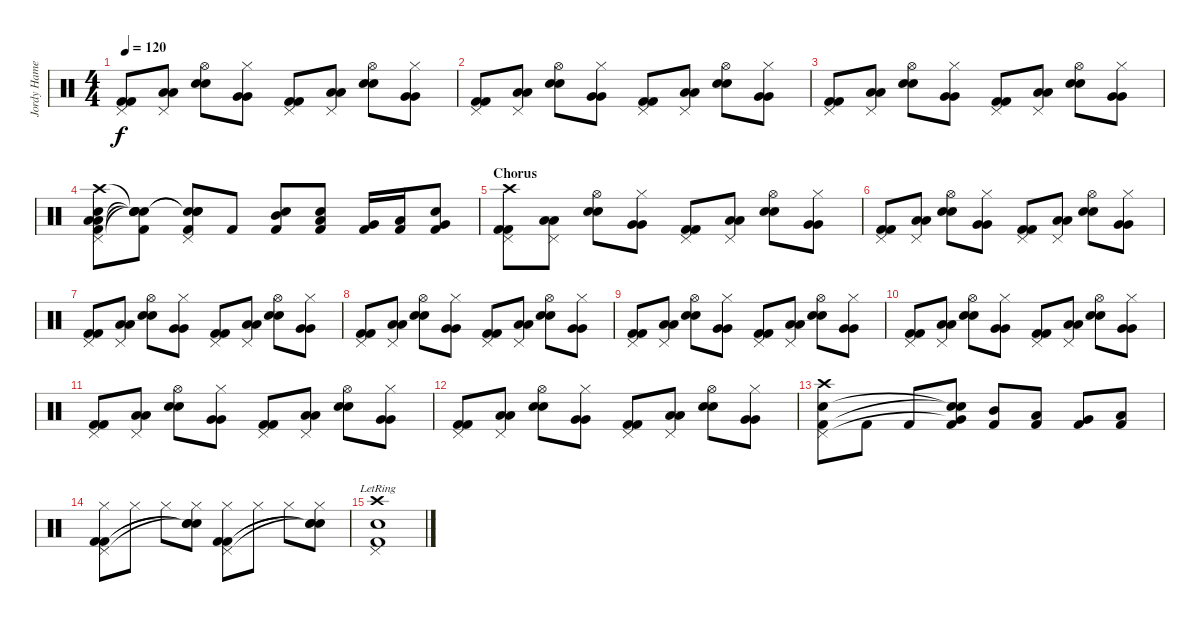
\track ("Jordy Hamer" "Jordy Hame") {instrument percussion}
\staff {score}
\articulation defaults
\ts (4 4)
\tempo 120
\clef neutral
\ks c
("Pedal Hi-Hat (hit)" "Kick (hit) 2" "Kick (hit) 2").8{dy f} ("Pedal Hi-Hat (hit)" "Low Floor Tom (hit)" "Low Floor Tom (hit)").8 ("Hi-Hat (open)" "Electric Snare (hit)" "Electric Snare (hit)").8 ("Hi-Hat (closed)" "Very Low Tom (hit)" "Very Low Tom (hit)").8 ("Pedal Hi-Hat (hit)" "Kick (hit) 2" "Kick (hit) 2").8 ("Pedal Hi-Hat (hit)" "Low Floor Tom (hit)" "Low Floor Tom (hit)").8 ("Hi-Hat (open)" "Electric Snare (hit)" "Electric Snare (hit)").8 ("Hi-Hat (closed)" "Very Low Tom (hit)" "Very Low Tom (hit)").8 |
("Pedal Hi-Hat (hit)" "Kick (hit) 2" "Kick (hit) 2").8 ("Pedal Hi-Hat (hit)" "Low Floor Tom (hit)" "Low Floor Tom (hit)").8 ("Hi-Hat (open)" "Electric Snare (hit)" "Electric Snare (hit)").8 ("Hi-Hat (closed)" "Very Low Tom (hit)" "Very Low Tom (hit)").8 ("Pedal Hi-Hat (hit)" "Kick (hit) 2" "Kick (hit) 2").8 ("Pedal Hi-Hat (hit)" "Low Floor Tom (hit)" "Low Floor Tom (hit)").8 ("Hi-Hat (open)" "Electric Snare (hit)" "Electric Snare (hit)").8 ("Hi-Hat (closed)" "Very Low Tom (hit)" "Very Low Tom (hit)").8 |
("Pedal Hi-Hat (hit)" "Kick (hit) 2" "Kick (hit) 2").8 ("Pedal Hi-Hat (hit)" "Low Floor Tom (hit)" "Low Floor Tom (hit)").8 ("Hi-Hat (open)" "Electric Snare (hit)" "Electric Snare (hit)").8 ("Hi-Hat (closed)" "Very Low Tom (hit)" "Very Low Tom (hit)").8 ("Pedal Hi-Hat (hit)" "Kick (hit) 2" "Kick (hit) 2").8 ("Pedal Hi-Hat (hit)" "Low Floor Tom (hit)" "Low Floor Tom (hit)").8 ("Hi-Hat (open)" "Electric Snare (hit)" "Electric Snare (hit)").8 ("Hi-Hat (closed)" "Very Low Tom (hit)" "Very Low Tom (hit)").8 |
("Low Floor Tom (hit)" "Pedal Hi-Hat (hit)" "Low Floor Tom (hit)" "Kick (hit) 2" "Crash high (hit)" "Electric Snare (hit)").8 ("Kick (hit) 2" "Snare (hit)"{t} "Snare (hit)"{t} "Snare (hit)"{t} "Snare (hit)"{t}).8 ("Pedal Hi-Hat (hit)" "Electric Snare (hit)" "Kick (hit) 2" "Snare (hit)"{t} "Snare (hit)"{t}).8 "Kick (hit) 2".8 ("Kick (hit) 2" "Mid Tom (hit)" "Electric Snare (hit)").8 ("Kick (hit) 2" "Low Tom (hit)" "Electric Snare (hit)").8 ("Kick (hit) 2" "Very Low Tom (hit)").16 ("Kick (hit) 2" "Low Floor Tom (hit)").16 ("Kick (hit) 2" "Very Low Tom (hit)" "Electric Snare (hit)").8 |
\section ("" "Chorus")
("Crash high (hit)" "Pedal Hi-Hat (hit)" "Kick (hit) 2" "Kick (hit) 2").8 ("Pedal Hi-Hat (hit)" "Low Floor Tom (hit)" "Low Floor Tom (hit)").8 ("Hi-Hat (open)" "Electric Snare (hit)" "Electric Snare (hit)").8 ("Hi-Hat (closed)" "Very Low Tom (hit)" "Very Low Tom (hit)").8 ("Pedal Hi-Hat (hit)" "Kick (hit) 2" "Kick (hit) 2").8 ("Pedal Hi-Hat (hit)" "Low Floor Tom (hit)" "Low Floor Tom (hit)").8 ("Hi-Hat (open)" "Electric Snare (hit)" "Electric Snare (hit)").8 ("Hi-Hat (closed)" "Very Low Tom (hit)" "Very Low Tom (hit)").8 |
("Pedal Hi-Hat (hit)" "Kick (hit) 2" "Kick (hit) 2").8 ("Pedal Hi-Hat (hit)" "Low Floor Tom (hit)" "Low Floor Tom (hit)").8 ("Hi-Hat (open)" "Electric Snare (hit)" "Electric Snare (hit)").8 ("Hi-Hat (closed)" "Very Low Tom (hit)" "Very Low Tom (hit)").8 ("Pedal Hi-Hat (hit)" "Kick (hit) 2" "Kick (hit) 2").8 ("Pedal Hi-Hat (hit)" "Low Floor Tom (hit)" "Low Floor Tom (hit)").8 ("Hi-Hat (open)" "Electric Snare (hit)" "Electric Snare (hit)").8 ("Hi-Hat (closed)" "Very Low Tom (hit)" "Very Low Tom (hit)").8 |
("Pedal Hi-Hat (hit)" "Kick (hit) 2" "Kick (hit) 2").8 ("Pedal Hi-Hat (hit)" "Low Floor Tom (hit)" "Low Floor Tom (hit)").8 ("Hi-Hat (open)" "Electric Snare (hit)" "Electric Snare (hit)").8 ("Hi-Hat (closed)" "Very Low Tom (hit)" "Very Low Tom (hit)").8 ("Pedal Hi-Hat (hit)" "Kick (hit) 2" "Kick (hit) 2").8 ("Pedal Hi-Hat (hit)" "Low Floor Tom (hit)" "Low Floor Tom (hit)").8 ("Hi-Hat (open)" "Electric Snare (hit)" "Electric Snare (hit)").8 ("Hi-Hat (closed)" "Very Low Tom (hit)" "Very Low Tom (hit)").8 |
("Pedal Hi-Hat (hit)" "Kick (hit) 2" "Kick (hit) 2").8 ("Pedal Hi-Hat (hit)" "Low Floor Tom (hit)" "Low Floor Tom (hit)").8 ("Hi-Hat (open)" "Electric Snare (hit)" "Electric Snare (hit)").8 ("Hi-Hat (closed)" "Very Low Tom (hit)" "Very Low Tom (hit)").8 ("Pedal Hi-Hat (hit)" "Kick (hit) 2" "Kick (hit) 2").8 ("Pedal Hi-Hat (hit)" "Low Floor Tom (hit)" "Low Floor Tom (hit)").8 ("Hi-Hat (open)" "Electric Snare (hit)" "Electric Snare (hit)").8 ("Hi-Hat (closed)" "Very Low Tom (hit)" "Very Low Tom (hit)").8 |
("Pedal Hi-Hat (hit)" "Kick (hit) 2" "Kick (hit) 2").8 ("Pedal Hi-Hat (hit)" "Low Floor Tom (hit)" "Low Floor Tom (hit)").8 ("Hi-Hat (open)" "Electric Snare (hit)" "Electric Snare (hit)").8 ("Hi-Hat (closed)" "Very Low Tom (hit)" "Very Low Tom (hit)").8 ("Pedal Hi-Hat (hit)" "Kick (hit) 2" "Kick (hit) 2").8 ("Pedal Hi-Hat (hit)" "Low Floor Tom (hit)" "Low Floor Tom (hit)").8 ("Hi-Hat (open)" "Electric Snare (hit)" "Electric Snare (hit)").8 ("Hi-Hat (closed)" "Very Low Tom (hit)" "Very Low Tom (hit)").8 |
("Pedal Hi-Hat (hit)" "Kick (hit) 2" "Kick (hit) 2").8 ("Pedal Hi-Hat (hit)" "Low Floor Tom (hit)" "Low Floor Tom (hit)").8 ("Hi-Hat (open)" "Electric Snare (hit)" "Electric Snare (hit)").8 ("Hi-Hat (closed)" "Very Low Tom (hit)" "Very Low Tom (hit)").8 ("Pedal Hi-Hat (hit)" "Kick (hit) 2" "Kick (hit) 2").8 ("Pedal Hi-Hat (hit)" "Low Floor Tom (hit)" "Low Floor Tom (hit)").8 ("Hi-Hat (open)" "Electric Snare (hit)" "Electric Snare (hit)").8 ("Hi-Hat (closed)" "Very Low Tom (hit)" "Very Low Tom (hit)").8 |
("Pedal Hi-Hat (hit)" "Kick (hit) 2" "Kick (hit) 2").8 ("Pedal Hi-Hat (hit)" "Low Floor Tom (hit)" "Low Floor Tom (hit)").8 ("Hi-Hat (open)" "Electric Snare (hit)" "Electric Snare (hit)").8 ("Hi-Hat (closed)" "Very Low Tom (hit)" "Very Low Tom (hit)").8 ("Pedal Hi-Hat (hit)" "Kick (hit) 2" "Kick (hit) 2").8 ("Pedal Hi-Hat (hit)" "Low Floor Tom (hit)" "Low Floor Tom (hit)").8 ("Hi-Hat (open)" "Electric Snare (hit)" "Electric Snare (hit)").8 ("Hi-Hat (closed)" "Very Low Tom (hit)" "Very Low Tom (hit)").8 |
("Pedal Hi-Hat (hit)" "Kick (hit) 2" "Kick (hit) 2").8 ("Pedal Hi-Hat (hit)" "Low Floor Tom (hit)" "Low Floor Tom (hit)").8 ("Hi-Hat (open)" "Electric Snare (hit)" "Electric Snare (hit)").8 ("Hi-Hat (closed)" "Very Low Tom (hit)" "Very Low Tom (hit)").8 ("Pedal Hi-Hat (hit)" "Kick (hit) 2" "Kick (hit) 2").8 ("Pedal Hi-Hat (hit)" "Low Floor Tom (hit)" "Low Floor Tom (hit)").8 ("Hi-Hat (open)" "Electric Snare (hit)" "Electric Snare (hit)").8 ("Hi-Hat (closed)" "Very Low Tom (hit)" "Very Low Tom (hit)").8 |
("Crash high (hit)" "Pedal Hi-Hat (hit)" "Electric Snare (hit)" "Kick (hit) 2").8 "Kick (hit) 2".8 "Kick (hit) 2".8 ("Kick (hit) 2" "Very Low Tom (hit)"{t} "Snare (hit)"{t} "Snare (hit)"{t}).8 ("Kick (hit) 2" "Mid Tom (hit)").8 ("Kick (hit) 2" "Low Tom (hit)").8 ("Kick (hit) 2" "Very Low Tom (hit)").8 ("Kick (hit) 2" "Low Floor Tom (hit)").8 |
("Hi-Hat (closed)" "Pedal Hi-Hat (hit)" "Kick (hit) 2" "Kick (hit) 2").8 "Hi-Hat (closed)".8 "Hi-Hat (closed)".8 ("Hi-Hat (closed)" "Snare (hit)"{t} "Snare (hit)"{t} "Snare (hit)"{t}).8 ("Hi-Hat (closed)" "Pedal Hi-Hat (hit)" "Kick (hit) 2" "Kick (hit) 2").8 "Hi-Hat (closed)".8 "Hi-Hat (closed)".8 ("Hi-Hat (closed)" "Snare (hit)"{t} "Snare (hit)"{t} "Snare (hit)"{t}).8 |
("Crash high (hit)"{lr} "Pedal Hi-Hat (hit)"{lr} "Electric Snare (hit)"{lr} "Kick (hit) 2"{lr}).1
